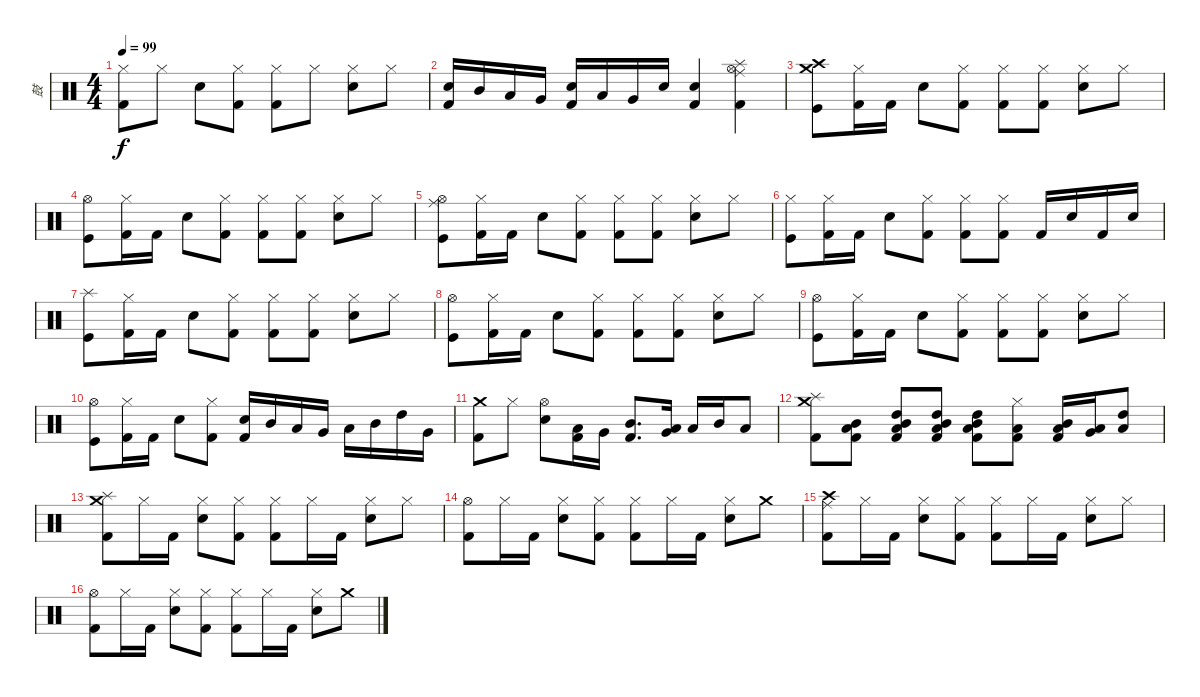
\track ("鼓" "鼓") {instrument percussion}
\staff {score}
\articulation defaults
\ts (4 4)
\tempo 99
\clef neutral
\ks c
("Hi-Hat (closed)" "Kick (hit) 2").8{dy f} "Hi-Hat (closed)".8 "Electric Snare (hit)".8 ("Hi-Hat (closed)" "Kick (hit) 2").8 ("Hi-Hat (closed)" "Kick (hit) 2").8 "Hi-Hat (closed)".8 ("Hi-Hat (closed)" "Electric Snare (hit)").8 "Hi-Hat (closed)".8 |
("Electric Snare (hit)" "Kick (hit) 2").16 "Mid Tom (hit)".16 "Low Tom (hit)".16 "Very Low Tom (hit)".16 ("Electric Snare (hit)" "Kick (hit) 2").16 "Low Tom (hit)".16 "Very Low Tom (hit)".16 "Electric Snare (hit)".16 ("Electric Snare (hit)" "Kick (hit) 2").4 ("Splash (hit)" "Ride (middle)" "Hi-Hat (open)" "Kick (hit) 2").4 |
("Crash medium (hit)" "Crash high (hit)" "Kick (hit)").8 ("Hi-Hat (closed)" "Kick (hit) 2").16 "Kick (hit) 2".16 "Electric Snare (hit)".8 ("Hi-Hat (closed)" "Kick (hit) 2").8 ("Hi-Hat (closed)" "Kick (hit) 2").8 ("Hi-Hat (closed)" "Kick (hit) 2").8 ("Hi-Hat (closed)" "Electric Snare (hit)").8 "Hi-Hat (closed)".8 |
("Hi-Hat (open)" "Kick (hit)").8 ("Hi-Hat (closed)" "Kick (hit) 2").16 "Kick (hit) 2".16 "Electric Snare (hit)".8 ("Hi-Hat (closed)" "Kick (hit) 2").8 ("Hi-Hat (closed)" "Kick (hit) 2").8 ("Hi-Hat (closed)" "Kick (hit) 2").8 ("Hi-Hat (closed)" "Electric Snare (hit)").8 "Hi-Hat (closed)".8 |
("Ride (middle)" "Hi-Hat (open)" "Kick (hit)").8 ("Hi-Hat (closed)" "Kick (hit) 2").16 "Kick (hit) 2".16 "Electric Snare (hit)".8 ("Hi-Hat (closed)" "Kick (hit) 2").8 ("Hi-Hat (closed)" "Kick (hit) 2").8 ("Hi-Hat (closed)" "Kick (hit) 2").8 ("Hi-Hat (closed)" "Electric Snare (hit)").8 "Hi-Hat (closed)".8 |
("Hi-Hat (closed)" "Kick (hit)").8 ("Hi-Hat (closed)" "Kick (hit) 2").16 "Kick (hit) 2".16 "Electric Snare (hit)".8 ("Hi-Hat (closed)" "Kick (hit) 2").8 ("Hi-Hat (closed)" "Kick (hit) 2").8 ("Hi-Hat (closed)" "Kick (hit) 2").8 "Kick (hit) 2".16 "Electric Snare (hit)".16 "Kick (hit) 2".16 "Electric Snare (hit)".16 |
("Splash (hit)" "Kick (hit)").8 ("Hi-Hat (closed)" "Kick (hit) 2").16 "Kick (hit) 2".16 "Electric Snare (hit)".8 ("Hi-Hat (closed)" "Kick (hit) 2").8 ("Hi-Hat (closed)" "Kick (hit) 2").8 ("Hi-Hat (closed)" "Kick (hit) 2").8 ("Hi-Hat (closed)" "Electric Snare (hit)").8 "Hi-Hat (closed)".8 |
("Hi-Hat (open)" "Kick (hit)").8 ("Hi-Hat (closed)" "Kick (hit) 2").16 "Kick (hit) 2".16 "Electric Snare (hit)".8 ("Hi-Hat (closed)" "Kick (hit) 2").8 ("Hi-Hat (closed)" "Kick (hit) 2").8 ("Hi-Hat (closed)" "Kick (hit) 2").8 ("Hi-Hat (closed)" "Electric Snare (hit)").8 "Hi-Hat (closed)".8 |
("Hi-Hat (open)" "Kick (hit)").8 ("Hi-Hat (closed)" "Kick (hit) 2").16 "Kick (hit) 2".16 "Electric Snare (hit)".8 ("Hi-Hat (closed)" "Kick (hit) 2").8 ("Hi-Hat (closed)" "Kick (hit) 2").8 ("Hi-Hat (closed)" "Kick (hit) 2").8 ("Hi-Hat (closed)" "Electric Snare (hit)").8 "Hi-Hat (closed)".8 |
("Hi-Hat (open)" "Kick (hit)").8 ("Hi-Hat (closed)" "Kick (hit) 2").16 "Kick (hit) 2".16 "Electric Snare (hit)".8 ("Hi-Hat (closed)" "Kick (hit) 2").8 ("Electric Snare (hit)" "Kick (hit) 2").16 "Mid Tom (hit)".16 "Low Tom (hit)".16 "Very Low Tom (hit)".16 "Low Tom (hit)".16 "Mid Tom (hit)".16 "High Tom (hit)".16 "Very Low Tom (hit)".16 |
("Crash medium (hit)" "Kick (hit) 2").8 "Hi-Hat (closed)".8 ("Hi-Hat (open)" "Electric Snare (hit)").8 ("Low Tom (hit)" "Kick (hit) 2").16 "Very Low Tom (hit)".16 ("Mid Tom (hit)" "Kick (hit) 2").8{d} ("Very Low Tom (hit)" "Low Tom (hit)").16 "Low Tom (hit)".16 "Mid Tom (hit)".16 "Low Floor Tom (hit)".8 |
("Splash (hit)" "Crash medium (hit)" "Kick (hit) 2").8 ("Mid Tom (hit)" "Low Tom (hit)" "Kick (hit) 2").8 ("Mid Tom (hit)" "High Tom (hit)" "Low Tom (hit)" "Kick (hit) 2").8 ("Mid Tom (hit)" "High Tom (hit)" "Low Tom (hit)" "Kick (hit) 2").8 ("Mid Tom (hit)" "High Tom (hit)" "Low Tom (hit)" "Kick (hit) 2").8 ("Hi-Hat (closed)" "Low Tom (hit)" "Kick (hit) 2").8 ("Mid Tom (hit)" "Low Tom (hit)" "Kick (hit) 2").16 ("Low Tom (hit)" "Very Low Tom (hit)").16 ("High Tom (hit)" "Low Floor Tom (hit)").8 |
("Splash (hit)" "Crash medium (hit)" "Kick (hit) 2").8 "Hi-Hat (closed)".16 "Kick (hit) 2".16 ("Hi-Hat (closed)" "Electric Snare (hit)").8 ("Hi-Hat (closed)" "Kick (hit) 2").8 ("Hi-Hat (closed)" "Kick (hit) 2").8 "Hi-Hat (closed)".16 "Kick (hit) 2".16 ("Hi-Hat (closed)" "Electric Snare (hit)").8 "Hi-Hat (closed)".8 |
("Hi-Hat (open)" "Kick (hit) 2").8 "Hi-Hat (closed)".16 "Kick (hit) 2".16 ("Hi-Hat (closed)" "Electric Snare (hit)").8 ("Hi-Hat (closed)" "Kick (hit) 2").8 ("Hi-Hat (closed)" "Kick (hit) 2").8 "Hi-Hat (closed)".16 "Kick (hit) 2".16 ("Hi-Hat (closed)" "Electric Snare (hit)").8 "Crash medium (hit)".8 |
("Ride (middle)" "Crash high (hit)" "Kick (hit) 2").8 "Hi-Hat (closed)".16 "Kick (hit) 2".16 ("Hi-Hat (closed)" "Electric Snare (hit)").8 ("Hi-Hat (closed)" "Kick (hit) 2").8 ("Hi-Hat (closed)" "Kick (hit) 2").8 "Hi-Hat (closed)".16 "Kick (hit) 2".16 ("Hi-Hat (closed)" "Electric Snare (hit)").8 "Hi-Hat (closed)".8 |
("Hi-Hat (open)" "Kick (hit) 2").8 "Hi-Hat (closed)".16 "Kick (hit) 2".16 ("Hi-Hat (closed)" "Electric Snare (hit)").8 ("Hi-Hat (closed)" "Kick (hit) 2").8 ("Hi-Hat (closed)" "Kick (hit) 2").8 "Hi-Hat (closed)".16 "Kick (hit) 2".16 ("Hi-Hat (closed)" "Electric Snare (hit)").8 "Crash medium (hit)".8
